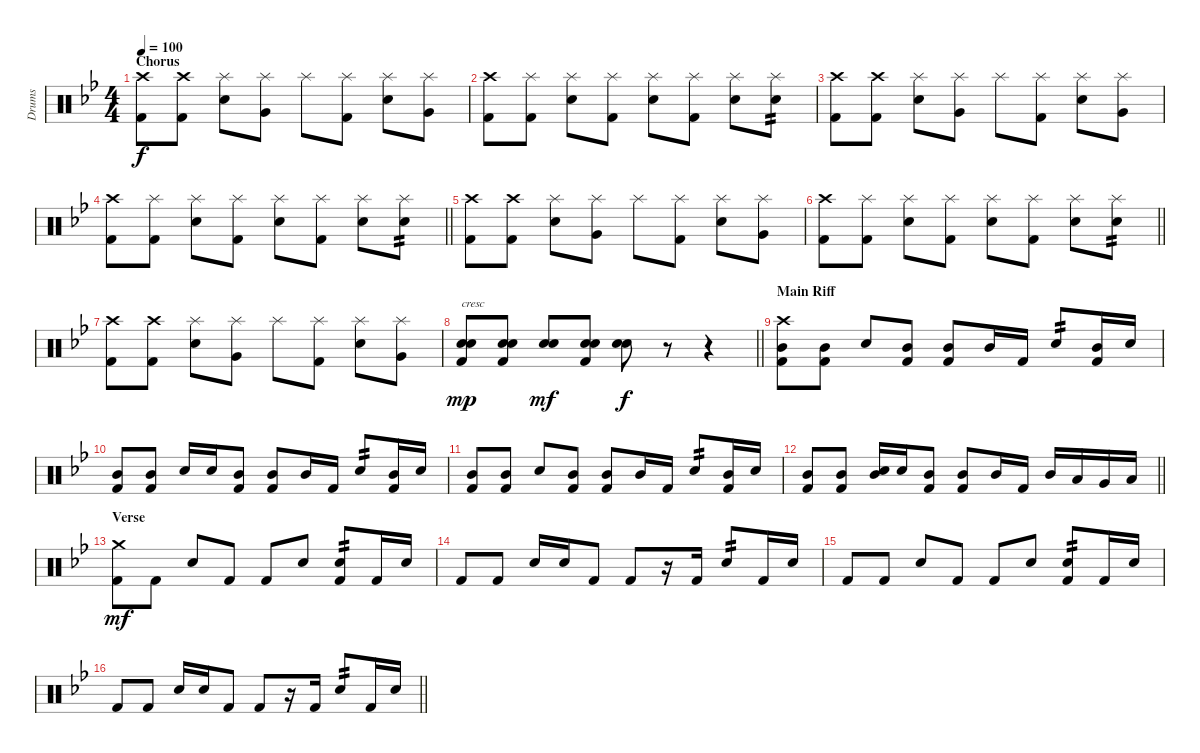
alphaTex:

\track ("Drums" "Drums") {instrument percussion}
\staff {score}
\articulation defaults
\ts (4 4)
\section ("" "Chorus")
\tempo 100
\clef neutral
\ks gminor
("Crash high (hit)" "Kick (hit) 2").8{dy f} ("Crash high (hit)" "Kick (hit) 2").8 ("Splash (hit)" "Snare (hit) 2").8 ("Splash (hit)" "Very Low Tom (hit)").8 "Splash (hit)".8 ("Splash (hit)" "Kick (hit) 2").8 ("Splash (hit)" "Snare (hit) 2").8 ("Splash (hit)" "Very Low Tom (hit)").8 |
("Crash high (hit)" "Kick (hit) 2").8 ("Splash (hit)" "Kick (hit) 2").8 ("Splash (hit)" "Snare (hit) 2").8 ("Splash (hit)" "Kick (hit) 2").8 ("Splash (hit)" "Snare (hit) 2").8 ("Splash (hit)" "Kick (hit) 2").8 ("Splash (hit)" "Snare (hit) 2").8 ("Splash (hit)" "Snare (hit) 2").8{tp 2} |
("Crash high (hit)" "Kick (hit) 2").8 ("Crash high (hit)" "Kick (hit) 2").8 ("Splash (hit)" "Snare (hit) 2").8 ("Splash (hit)" "Very Low Tom (hit)").8 "Splash (hit)".8 ("Splash (hit)" "Kick (hit) 2").8 ("Splash (hit)" "Snare (hit) 2").8 ("Splash (hit)" "Very Low Tom (hit)").8 |
\barLineRight lightlight
("Crash high (hit)" "Kick (hit) 2").8 ("Splash (hit)" "Kick (hit) 2").8 ("Splash (hit)" "Snare (hit) 2").8 ("Splash (hit)" "Kick (hit) 2").8 ("Splash (hit)" "Snare (hit) 2").8 ("Splash (hit)" "Kick (hit) 2").8 ("Splash (hit)" "Snare (hit) 2").8 ("Splash (hit)" "Snare (hit) 2").8{tp 2} |
\section ("" "")
("Crash high (hit)" "Kick (hit) 2").8 ("Crash high (hit)" "Kick (hit) 2").8 ("Splash (hit)" "Snare (hit) 2").8 ("Splash (hit)" "Very Low Tom (hit)").8 "Splash (hit)".8 ("Splash (hit)" "Kick (hit) 2").8 ("Splash (hit)" "Snare (hit) 2").8 ("Splash (hit)" "Very Low Tom (hit)").8 |
\barLineRight lightlight
("Crash high (hit)" "Kick (hit) 2").8 ("Splash (hit)" "Kick (hit) 2").8 ("Splash (hit)" "Snare (hit) 2").8 ("Splash (hit)" "Kick (hit) 2").8 ("Splash (hit)" "Snare (hit) 2").8 ("Splash (hit)" "Kick (hit) 2").8 ("Splash (hit)" "Snare (hit) 2").8 ("Splash (hit)" "Snare (hit) 2").8{tp 2} |
("Crash high (hit)" "Kick (hit) 2").8 ("Crash high (hit)" "Kick (hit) 2").8 ("Splash (hit)" "Snare (hit) 2").8 ("Splash (hit)" "Very Low Tom (hit)").8 "Splash (hit)".8 ("Splash (hit)" "Kick (hit) 2").8 ("Splash (hit)" "Snare (hit) 2").8 ("Splash (hit)" "Very Low Tom (hit)").8 |
\barLineRight lightlight
("Electric Snare (hit)" "Snare (hit) 2" "Kick (hit) 2").8{txt "cresc" dy mp} ("Electric Snare (hit)" "Snare (hit) 2" "Kick (hit) 2").8 ("Electric Snare (hit)" "Snare (hit) 2").8{dy mf} ("Electric Snare (hit)" "Snare (hit) 2" "Kick (hit) 2").8 ("Electric Snare (hit)" "Snare (hit) 2").8{dy f} r.8 r.4 |
\section ("" "Main Riff")
("Crash high (hit)" "Mid Tom (hit)" "Kick (hit) 2").8 ("Mid Tom (hit)" "Kick (hit) 2").8 "Snare (hit) 2".8 ("Mid Tom (hit)" "Kick (hit) 2").8 ("Mid Tom (hit)" "Kick (hit) 2").8 "Mid Tom (hit)".16 "Kick (hit) 2".16 "Snare (hit) 2".8{tp 2} ("Mid Tom (hit)" "Kick (hit) 2").16 "Snare (hit) 2".16 |
("Mid Tom (hit)" "Kick (hit) 2").8 ("Mid Tom (hit)" "Kick (hit) 2").8 "Snare (hit) 2".16 "Snare (hit) 2".16 ("Mid Tom (hit)" "Kick (hit) 2").8 ("Mid Tom (hit)" "Kick (hit) 2").8 "Mid Tom (hit)".16 "Kick (hit) 2".16 "Snare (hit) 2".8{tp 2} ("Mid Tom (hit)" "Kick (hit) 2").16 "Snare (hit) 2".16 |
("Mid Tom (hit)" "Kick (hit) 2").8 ("Mid Tom (hit)" "Kick (hit) 2").8 "Snare (hit) 2".8 ("Mid Tom (hit)" "Kick (hit) 2").8 ("Mid Tom (hit)" "Kick (hit) 2").8 "Mid Tom (hit)".16 "Kick (hit) 2".16 "Snare (hit) 2".8{tp 2} ("Mid Tom (hit)" "Kick (hit) 2").16 "Snare (hit) 2".16 |
\barLineRight lightlight
("Mid Tom (hit)" "Kick (hit) 2").8 ("Mid Tom (hit)" "Kick (hit) 2").8 ("Mid Tom (hit)" "Snare (hit) 2").16 "Snare (hit) 2".16 ("Mid Tom (hit)" "Kick (hit) 2").8 ("Mid Tom (hit)" "Kick (hit) 2").8 "Mid Tom (hit)".16 "Kick (hit) 2".16 "Mid Tom (hit)".16 "Low Tom (hit)".16 "Very Low Tom (hit)".16 "Low Tom (hit)".16 |
\section ("" "Verse")
("Crash medium (hit)" "Kick (hit) 2").8{dy mf} "Kick (hit) 2".8 "Snare (hit) 2".8 "Kick (hit) 2".8 "Kick (hit) 2".8 "Snare (hit) 2".8 ("Snare (hit) 2" "Kick (hit) 2").8{tp 2} "Kick (hit) 2".16 "Snare (hit) 2".16 |
"Kick (hit) 2".8 "Kick (hit) 2".8 "Snare (hit) 2".16 "Snare (hit) 2".16 "Kick (hit) 2".8 "Kick (hit) 2".8 r.16 "Kick (hit) 2".16 "Snare (hit) 2".8{tp 2} "Kick (hit) 2".16 "Snare (hit) 2".16 |
"Kick (hit) 2".8 "Kick (hit) 2".8 "Snare (hit) 2".8 "Kick (hit) 2".8 "Kick (hit) 2".8 "Snare (hit) 2".8 ("Snare (hit) 2" "Kick (hit) 2").8{tp 2} "Kick (hit) 2".16 "Snare (hit) 2".16 |
\barLineRight lightlight "Kick (hit) 2".8 "Kick (hit) 2".8 "Snare (hit) 2".16 "Snare (hit) 2".16 "Kick (hit) 2".8 "Kick (hit) 2".8
r.16 "Kick (hit) 2".16 "Snare (hit) 2".8{tp 2} "Kick (hit) 2".16 "Snare (hit) 2".16
